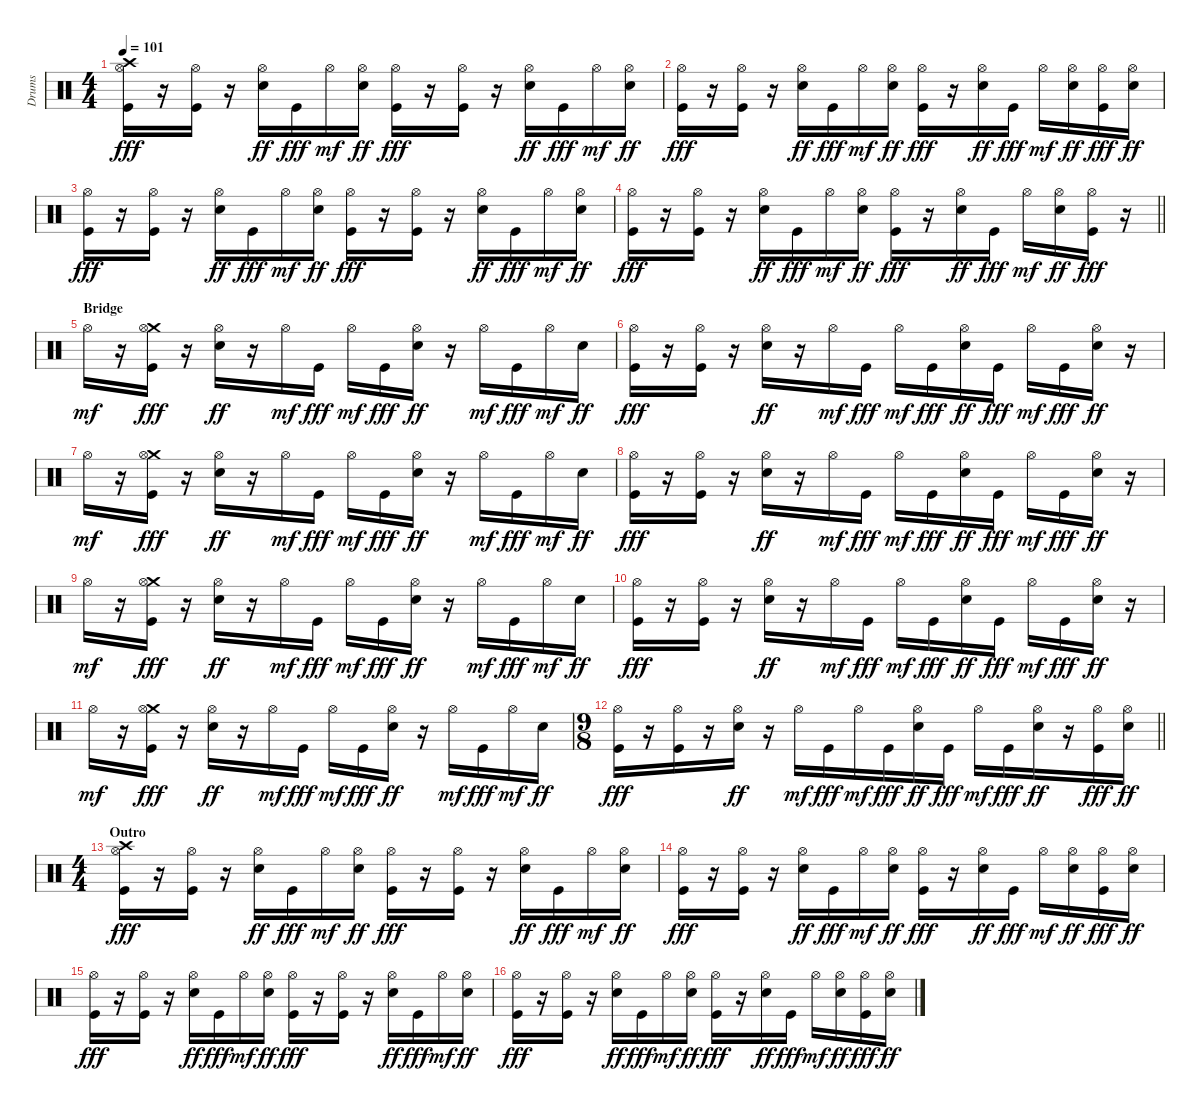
\track ("Drums" "Drums") {instrument percussion}
\staff {score}
\articulation defaults
\ts (4 4)
\tempo 101
\clef neutral
\ks c
("Crash high (hit)" "Hi-Hat (open)" "Kick (hit)").16{dy fff} r.16 ("Hi-Hat (open)" "Kick (hit)").16 r.16 ("Hi-Hat (open)" "Electric Snare (hit)").16{dy ff} "Kick (hit)".16{dy fff} "Hi-Hat (open)".16{dy mf} ("Hi-Hat (open)" "Electric Snare (hit)").16{dy ff} ("Hi-Hat (open)" "Kick (hit)").16{dy fff} r.16 ("Hi-Hat (open)" "Kick (hit)").16 r.16 ("Hi-Hat (open)" "Electric Snare (hit)").16{dy ff} "Kick (hit)".16{dy fff} "Hi-Hat (open)".16{dy mf} ("Hi-Hat (open)" "Electric Snare (hit)").16{dy ff} |
("Hi-Hat (open)" "Kick (hit)").16{dy fff} r.16 ("Hi-Hat (open)" "Kick (hit)").16 r.16 ("Hi-Hat (open)" "Electric Snare (hit)").16{dy ff} "Kick (hit)".16{dy fff} "Hi-Hat (open)".16{dy mf} ("Hi-Hat (open)" "Electric Snare (hit)").16{dy ff} ("Hi-Hat (open)" "Kick (hit)").16{dy fff} r.16 ("Hi-Hat (open)" "Electric Snare (hit)").16{dy ff} "Kick (hit)".16{dy fff} "Hi-Hat (open)".16{dy mf} ("Hi-Hat (open)" "Electric Snare (hit)").16{dy ff} ("Hi-Hat (open)" "Kick (hit)").16{dy fff} ("Hi-Hat (open)" "Electric Snare (hit)").16{dy ff} |
("Hi-Hat (open)" "Kick (hit)").16{dy fff} r.16 ("Hi-Hat (open)" "Kick (hit)").16 r.16 ("Hi-Hat (open)" "Electric Snare (hit)").16{dy ff} "Kick (hit)".16{dy fff} "Hi-Hat (open)".16{dy mf} ("Hi-Hat (open)" "Electric Snare (hit)").16{dy ff} ("Hi-Hat (open)" "Kick (hit)").16{dy fff} r.16 ("Hi-Hat (open)" "Kick (hit)").16 r.16 ("Hi-Hat (open)" "Electric Snare (hit)").16{dy ff} "Kick (hit)".16{dy fff} "Hi-Hat (open)".16{dy mf} ("Hi-Hat (open)" "Electric Snare (hit)").16{dy ff} |
\barLineRight lightlight
("Hi-Hat (open)" "Kick (hit)").16{dy fff} r.16 ("Hi-Hat (open)" "Kick (hit)").16 r.16 ("Hi-Hat (open)" "Electric Snare (hit)").16{dy ff} "Kick (hit)".16{dy fff} "Hi-Hat (open)".16{dy mf} ("Hi-Hat (open)" "Electric Snare (hit)").16{dy ff} ("Hi-Hat (open)" "Kick (hit)").16{dy fff} r.16 ("Hi-Hat (open)" "Electric Snare (hit)").16{dy ff} "Kick (hit)".16{dy fff} "Hi-Hat (open)".16{dy mf} ("Hi-Hat (open)" "Electric Snare (hit)").16{dy ff} ("Hi-Hat (open)" "Kick (hit)").16{dy fff} r.16 |
\section ("" "Bridge")
"Hi-Hat (open)".16{dy mf} r.16 ("Crash medium (hit)" "Hi-Hat (open)" "Kick (hit)").16{dy fff} r.16 ("Hi-Hat (open)" "Electric Snare (hit)").16{dy ff} r.16 "Hi-Hat (open)".16{dy mf} "Kick (hit)".16{dy fff} "Hi-Hat (open)".16{dy mf} "Kick (hit)".16{dy fff} ("Hi-Hat (open)" "Electric Snare (hit)").16{dy ff} r.16 "Hi-Hat (open)".16{dy mf} "Kick (hit)".16{dy fff} "Hi-Hat (open)".16{dy mf} "Electric Snare (hit)".16{dy ff} |
("Hi-Hat (open)" "Kick (hit)").16{dy fff} r.16 ("Hi-Hat (open)" "Kick (hit)").16 r.16 ("Hi-Hat (open)" "Electric Snare (hit)").16{dy ff} r.16 "Hi-Hat (open)".16{dy mf} "Kick (hit)".16{dy fff} "Hi-Hat (open)".16{dy mf} "Kick (hit)".16{dy fff} ("Hi-Hat (open)" "Electric Snare (hit)").16{dy ff} "Kick (hit)".16{dy fff} "Hi-Hat (open)".16{dy mf} "Kick (hit)".16{dy fff} ("Hi-Hat (open)" "Electric Snare (hit)").16{dy ff} r.16 |
"Hi-Hat (open)".16{dy mf} r.16 ("Crash medium (hit)" "Hi-Hat (open)" "Kick (hit)").16{dy fff} r.16 ("Hi-Hat (open)" "Electric Snare (hit)").16{dy ff} r.16 "Hi-Hat (open)".16{dy mf} "Kick (hit)".16{dy fff} "Hi-Hat (open)".16{dy mf} "Kick (hit)".16{dy fff} ("Hi-Hat (open)" "Electric Snare (hit)").16{dy ff} r.16 "Hi-Hat (open)".16{dy mf} "Kick (hit)".16{dy fff} "Hi-Hat (open)".16{dy mf} "Electric Snare (hit)".16{dy ff} |
("Hi-Hat (open)" "Kick (hit)").16{dy fff} r.16 ("Hi-Hat (open)" "Kick (hit)").16 r.16 ("Hi-Hat (open)" "Electric Snare (hit)").16{dy ff} r.16 "Hi-Hat (open)".16{dy mf} "Kick (hit)".16{dy fff} "Hi-Hat (open)".16{dy mf} "Kick (hit)".16{dy fff} ("Hi-Hat (open)" "Electric Snare (hit)").16{dy ff} "Kick (hit)".16{dy fff} "Hi-Hat (open)".16{dy mf} "Kick (hit)".16{dy fff} ("Hi-Hat (open)" "Electric Snare (hit)").16{dy ff} r.16 |
"Hi-Hat (open)".16{dy mf} r.16 ("Crash medium (hit)" "Hi-Hat (open)" "Kick (hit)").16{dy fff} r.16 ("Hi-Hat (open)" "Electric Snare (hit)").16{dy ff} r.16 "Hi-Hat (open)".16{dy mf} "Kick (hit)".16{dy fff} "Hi-Hat (open)".16{dy mf} "Kick (hit)".16{dy fff} ("Hi-Hat (open)" "Electric Snare (hit)").16{dy ff} r.16 "Hi-Hat (open)".16{dy mf} "Kick (hit)".16{dy fff} "Hi-Hat (open)".16{dy mf} "Electric Snare (hit)".16{dy ff} |
("Hi-Hat (open)" "Kick (hit)").16{dy fff} r.16 ("Hi-Hat (open)" "Kick (hit)").16 r.16 ("Hi-Hat (open)" "Electric Snare (hit)").16{dy ff} r.16 "Hi-Hat (open)".16{dy mf} "Kick (hit)".16{dy fff} "Hi-Hat (open)".16{dy mf} "Kick (hit)".16{dy fff} ("Hi-Hat (open)" "Electric Snare (hit)").16{dy ff} "Kick (hit)".16{dy fff} "Hi-Hat (open)".16{dy mf} "Kick (hit)".16{dy fff} ("Hi-Hat (open)" "Electric Snare (hit)").16{dy ff} r.16 |
"Hi-Hat (open)".16{dy mf} r.16 ("Crash medium (hit)" "Hi-Hat (open)" "Kick (hit)").16{dy fff} r.16 ("Hi-Hat (open)" "Electric Snare (hit)").16{dy ff} r.16 "Hi-Hat (open)".16{dy mf} "Kick (hit)".16{dy fff} "Hi-Hat (open)".16{dy mf} "Kick (hit)".16{dy fff} ("Hi-Hat (open)" "Electric Snare (hit)").16{dy ff} r.16 "Hi-Hat (open)".16{dy mf} "Kick (hit)".16{dy fff} "Hi-Hat (open)".16{dy mf} "Electric Snare (hit)".16{dy ff} |
\ts (9 8)
\barLineRight lightlight
("Hi-Hat (open)" "Kick (hit)").16{dy fff} r.16 ("Hi-Hat (open)" "Kick (hit)").16 r.16 ("Hi-Hat (open)" "Electric Snare (hit)").16{dy ff} r.16 "Hi-Hat (open)".16{dy mf} "Kick (hit)".16{dy fff} "Hi-Hat (open)".16{dy mf} "Kick (hit)".16{dy fff} ("Hi-Hat (open)" "Electric Snare (hit)").16{dy ff} "Kick (hit)".16{dy fff} "Hi-Hat (open)".16{dy mf} "Kick (hit)".16{dy fff} ("Hi-Hat (open)" "Electric Snare (hit)").16{dy ff} r.16 ("Hi-Hat (open)" "Kick (hit)").16{dy fff} ("Hi-Hat (open)" "Electric Snare (hit)").16{dy ff} |
\ts (4 4)
\section ("" "Outro")
("Crash high (hit)" "Hi-Hat (open)" "Kick (hit)").16{dy fff} r.16 ("Hi-Hat (open)" "Kick (hit)").16 r.16 ("Hi-Hat (open)" "Electric Snare (hit)").16{dy ff} "Kick (hit)".16{dy fff} "Hi-Hat (open)".16{dy mf} ("Hi-Hat (open)" "Electric Snare (hit)").16{dy ff} ("Hi-Hat (open)" "Kick (hit)").16{dy fff} r.16 ("Hi-Hat (open)" "Kick (hit)").16 r.16 ("Hi-Hat (open)" "Electric Snare (hit)").16{dy ff} "Kick (hit)".16{dy fff} "Hi-Hat (open)".16{dy mf} ("Hi-Hat (open)" "Electric Snare (hit)").16{dy ff} |
("Hi-Hat (open)" "Kick (hit)").16{dy fff} r.16 ("Hi-Hat (open)" "Kick (hit)").16 r.16 ("Hi-Hat (open)" "Electric Snare (hit)").16{dy ff} "Kick (hit)".16{dy fff} "Hi-Hat (open)".16{dy mf} ("Hi-Hat (open)" "Electric Snare (hit)").16{dy ff} ("Hi-Hat (open)" "Kick (hit)").16{dy fff} r.16 ("Hi-Hat (open)" "Electric Snare (hit)").16{dy ff} "Kick (hit)".16{dy fff} "Hi-Hat (open)".16{dy mf} ("Hi-Hat (open)" "Electric Snare (hit)").16{dy ff} ("Hi-Hat (open)" "Kick (hit)").16{dy fff} ("Hi-Hat (open)" "Electric Snare (hit)").16{dy ff} |
("Hi-Hat (open)" "Kick (hit)").16{dy fff} r.16 ("Hi-Hat (open)" "Kick (hit)").16 r.16 ("Hi-Hat (open)" "Electric Snare (hit)").16{dy ff} "Kick (hit)".16{dy fff} "Hi-Hat (open)".16{dy mf} ("Hi-Hat (open)" "Electric Snare (hit)").16{dy ff} ("Hi-Hat (open)" "Kick (hit)").16{dy fff} r.16 ("Hi-Hat (open)" "Kick (hit)").16 r.16 ("Hi-Hat (open)" "Electric Snare (hit)").16{dy ff} "Kick (hit)".16{dy fff} "Hi-Hat (open)".16{dy mf} ("Hi-Hat (open)" "Electric Snare (hit)").16{dy ff} |
("Hi-Hat (open)" "Kick (hit)").16{dy fff} r.16 ("Hi-Hat (open)" "Kick (hit)").16 r.16 ("Hi-Hat (open)" "Electric Snare (hit)").16{dy ff} "Kick (hit)".16{dy fff} "Hi-Hat (open)".16{dy mf} ("Hi-Hat (open)" "Electric Snare (hit)").16{dy ff} ("Hi-Hat (open)" "Kick (hit)").16{dy fff} r.16 ("Hi-Hat (open)" "Electric Snare (hit)").16{dy ff} "Kick (hit)".16{dy fff} "Hi-Hat (open)".16{dy mf} ("Hi-Hat (open)" "Electric Snare (hit)").16{dy ff} ("Hi-Hat (open)" "Kick (hit)").16{dy fff} ("Hi-Hat (open)" "Electric Snare (hit)").16{dy ff}
